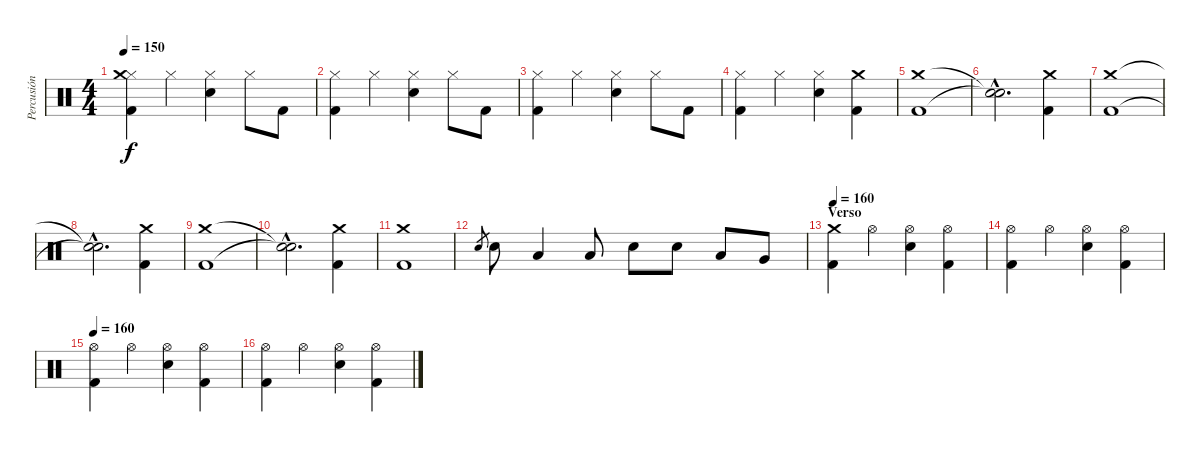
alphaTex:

\track ("Percusión" "Percusión") {instrument percussion}
\staff {score}
\articulation defaults
\ts (4 4)
\tempo 150
\clef neutral
\ks c
("Hi-Hat (closed)" "Crash medium (hit)" "Kick (hit) 2").4{dy f} "Hi-Hat (closed)".4 ("Hi-Hat (closed)" "Snare (hit) 2").4 "Hi-Hat (closed)".8 "Kick (hit) 2".8 |
("Hi-Hat (closed)" "Kick (hit) 2").4 "Hi-Hat (closed)".4 ("Hi-Hat (closed)" "Snare (hit) 2").4 "Hi-Hat (closed)".8 "Kick (hit) 2".8 |
("Hi-Hat (closed)" "Kick (hit) 2").4 "Hi-Hat (closed)".4 ("Hi-Hat (closed)" "Snare (hit) 2").4 "Hi-Hat (closed)".8 "Kick (hit) 2".8 |
("Hi-Hat (closed)" "Kick (hit) 2").4 "Hi-Hat (closed)".4 ("Hi-Hat (closed)" "Snare (hit) 2").4 ("Kick (hit) 2" "Crash medium (hit)").4 |
\section ("" "")
("Kick (hit) 2" "Crash medium (hit)").1 |
("Snare (hit)"{hac t} "Snare (hit)"{hac t}).2{d} ("Kick (hit) 2" "Crash medium (hit)").4 |
("Kick (hit) 2" "Crash medium (hit)").1 |
("Snare (hit)"{hac t} "Snare (hit)"{hac t}).2{d} ("Kick (hit) 2" "Crash medium (hit)").4 |
("Kick (hit) 2" "Crash medium (hit)").1 |
("Snare (hit)"{hac t} "Snare (hit)"{hac t}).2{d} ("Kick (hit) 2" "Crash medium (hit)").4 |
("Kick (hit) 2" "Crash medium (hit)").1 |
"Snare (hit) 2".8{gr} "Snare (hit) 2".8 "Low Tom (hit)".4 "Low Tom (hit)".8 "Snare (hit) 2".8 "Snare (hit) 2".8 "Low Tom (hit)".8 "Very Low Tom (hit)".8 |
\section ("" "Verso ")
\tempo 160
("Crash medium (hit)" "Kick (hit) 2").4 "Hi-Hat (open)".4 ("Hi-Hat (open)" "Snare (hit) 2").4 ("Hi-Hat (open)" "Kick (hit) 2").4 |
("Hi-Hat (open)" "Kick (hit) 2").4 "Hi-Hat (open)".4 ("Hi-Hat (open)" "Snare (hit) 2").4 ("Hi-Hat (open)" "Kick (hit) 2").4 |
\tempo 160
("Hi-Hat (open)" "Kick (hit) 2").4 "Hi-Hat (open)".4 ("Hi-Hat (open)" "Snare (hit) 2").4 ("Hi-Hat (open)" "Kick (hit) 2").4 |
("Hi-Hat (open)" "Kick (hit) 2").4 "Hi-Hat (open)".4 ("Hi-Hat (open)" "Snare (hit) 2").4 ("Hi-Hat (open)" "Kick (hit) 2").4
